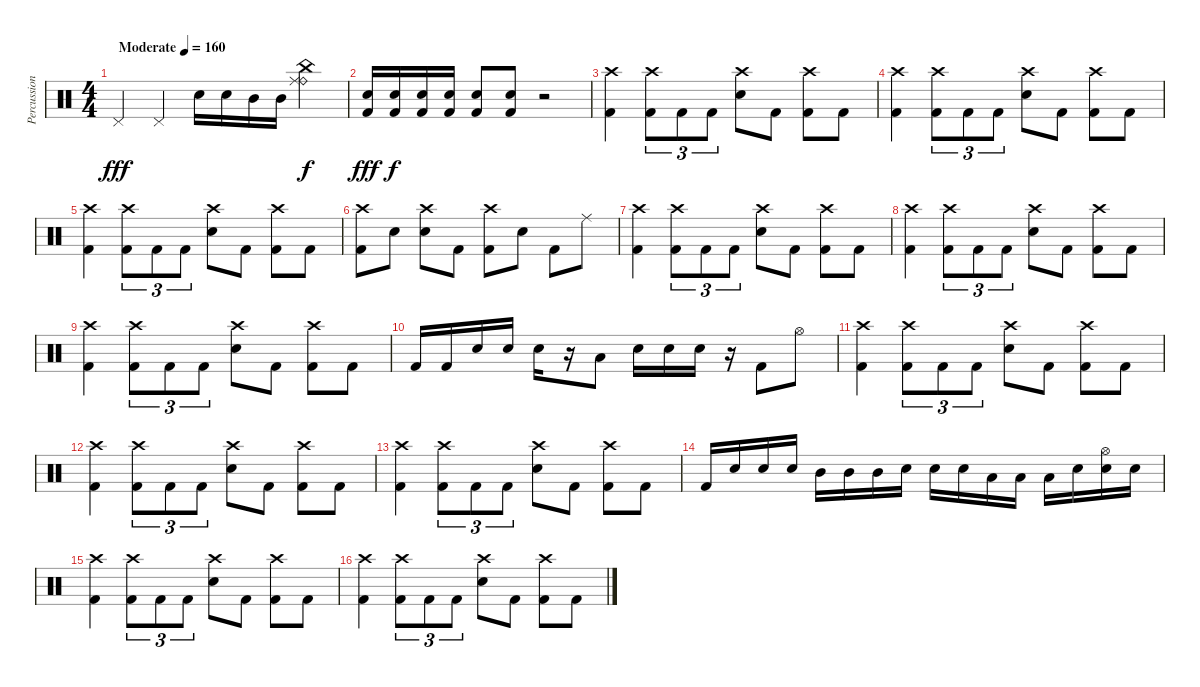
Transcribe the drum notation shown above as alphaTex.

\track ("Percussion" "Percussion") {instrument percussion}
\staff {score}
\articulation defaults
\ts (4 4)
\tempo (160 "Moderate")
\clef neutral
\ks c "Pedal Hi-Hat (hit)".4{dy fff} "Pedal Hi-Hat (hit)".4 "Electric Snare (hit)".16 "Electric Snare (hit)".16 "Mid Tom (hit)".16 "Mid Tom (hit)".16
("Ride (bell)" "China (hit)" "Ride (middle)").4{dy f} |
("Electric Snare (hit)" "Kick (hit) 2").16{dy fff} ("Electric Snare (hit)" "Kick (hit) 2").16{dy f} ("Electric Snare (hit)" "Kick (hit) 2").16 ("Electric Snare (hit)" "Kick (hit) 2").16 ("Electric Snare (hit)" "Kick (hit) 2").8 ("Electric Snare (hit)" "Kick (hit) 2").8 r.2 |
("Crash high (hit)" "Kick (hit) 2").4 ("Crash high (hit)" "Kick (hit) 2").8{tu (3 2)} "Kick (hit) 2".8{tu (3 2)} "Kick (hit) 2".8{tu (3 2)} ("Crash high (hit)" "Electric Snare (hit)").8 "Kick (hit) 2".8 ("Crash high (hit)" "Kick (hit) 2").8 "Kick (hit) 2".8 |
("Crash high (hit)" "Kick (hit) 2").4 ("Crash high (hit)" "Kick (hit) 2").8{tu (3 2)} "Kick (hit) 2".8{tu (3 2)} "Kick (hit) 2".8{tu (3 2)} ("Crash high (hit)" "Electric Snare (hit)").8 "Kick (hit) 2".8 ("Crash high (hit)" "Kick (hit) 2").8 "Kick (hit) 2".8 |
("Crash high (hit)" "Kick (hit) 2").4 ("Crash high (hit)" "Kick (hit) 2").8{tu (3 2)} "Kick (hit) 2".8{tu (3 2)} "Kick (hit) 2".8{tu (3 2)} ("Crash high (hit)" "Electric Snare (hit)").8 "Kick (hit) 2".8 ("Crash high (hit)" "Kick (hit) 2").8 "Kick (hit) 2".8 |
("Crash high (hit)" "Kick (hit) 2").8 "Electric Snare (hit)".8 ("Crash high (hit)" "Electric Snare (hit)").8 "Kick (hit) 2".8 ("Crash high (hit)" "Kick (hit) 2").8 "Electric Snare (hit)".8 "Kick (hit) 2".8 "Ride (middle)".8 |
("Crash high (hit)" "Kick (hit) 2").4 ("Crash high (hit)" "Kick (hit) 2").8{tu (3 2)} "Kick (hit) 2".8{tu (3 2)} "Kick (hit) 2".8{tu (3 2)} ("Crash high (hit)" "Electric Snare (hit)").8 "Kick (hit) 2".8 ("Crash high (hit)" "Kick (hit) 2").8 "Kick (hit) 2".8 |
("Crash high (hit)" "Kick (hit) 2").4 ("Crash high (hit)" "Kick (hit) 2").8{tu (3 2)} "Kick (hit) 2".8{tu (3 2)} "Kick (hit) 2".8{tu (3 2)} ("Crash high (hit)" "Electric Snare (hit)").8 "Kick (hit) 2".8 ("Crash high (hit)" "Kick (hit) 2").8 "Kick (hit) 2".8 |
("Crash high (hit)" "Kick (hit) 2").4 ("Crash high (hit)" "Kick (hit) 2").8{tu (3 2)} "Kick (hit) 2".8{tu (3 2)} "Kick (hit) 2".8{tu (3 2)} ("Crash high (hit)" "Electric Snare (hit)").8 "Kick (hit) 2".8 ("Crash high (hit)" "Kick (hit) 2").8 "Kick (hit) 2".8 |
"Kick (hit) 2".16 "Kick (hit) 2".16 "Electric Snare (hit)".16 "Electric Snare (hit)".16 "Electric Snare (hit)".16 r.16 "Low Tom (hit)".8 "Electric Snare (hit)".16 "Electric Snare (hit)".16 "Electric Snare (hit)".16 r.16 "Kick (hit) 2".8 "Hi-Hat (open)".8 |
("Crash high (hit)" "Kick (hit) 2").4 ("Crash high (hit)" "Kick (hit) 2").8{tu (3 2)} "Kick (hit) 2".8{tu (3 2)} "Kick (hit) 2".8{tu (3 2)} ("Crash high (hit)" "Electric Snare (hit)").8 "Kick (hit) 2".8 ("Crash high (hit)" "Kick (hit) 2").8 "Kick (hit) 2".8 |
("Crash high (hit)" "Kick (hit) 2").4 ("Crash high (hit)" "Kick (hit) 2").8{tu (3 2)} "Kick (hit) 2".8{tu (3 2)} "Kick (hit) 2".8{tu (3 2)} ("Crash high (hit)" "Electric Snare (hit)").8 "Kick (hit) 2".8 ("Crash high (hit)" "Kick (hit) 2").8 "Kick (hit) 2".8 |
("Crash high (hit)" "Kick (hit) 2").4 ("Crash high (hit)" "Kick (hit) 2").8{tu (3 2)} "Kick (hit) 2".8{tu (3 2)} "Kick (hit) 2".8{tu (3 2)} ("Crash high (hit)" "Electric Snare (hit)").8 "Kick (hit) 2".8 ("Crash high (hit)" "Kick (hit) 2").8 "Kick (hit) 2".8 |
"Kick (hit) 2".16 "Electric Snare (hit)".16 "Electric Snare (hit)".16 "Electric Snare (hit)".16 "Mid Tom (hit)".16 "Mid Tom (hit)".16 "Mid Tom (hit)".16 "Electric Snare (hit)".16 "Electric Snare (hit)".16 "Electric Snare (hit)".16 "Low Tom (hit)".16 "Low Tom (hit)".16 "Low Tom (hit)".16 "Electric Snare (hit)".16 ("Hi-Hat (open)" "Electric Snare (hit)").16 "Electric Snare (hit)".16 |
("Crash high (hit)" "Kick (hit) 2").4 ("Crash high (hit)" "Kick (hit) 2").8{tu (3 2)} "Kick (hit) 2".8{tu (3 2)} "Kick (hit) 2".8{tu (3 2)} ("Crash high (hit)" "Electric Snare (hit)").8 "Kick (hit) 2".8 ("Crash high (hit)" "Kick (hit) 2").8 "Kick (hit) 2".8 |
("Crash high (hit)" "Kick (hit) 2").4 ("Crash high (hit)" "Kick (hit) 2").8{tu (3 2)} "Kick (hit) 2".8{tu (3 2)} "Kick (hit) 2".8{tu (3 2)} ("Crash high (hit)" "Electric Snare (hit)").8 "Kick (hit) 2".8 ("Crash high (hit)" "Kick (hit) 2").8 "Kick (hit) 2".8
